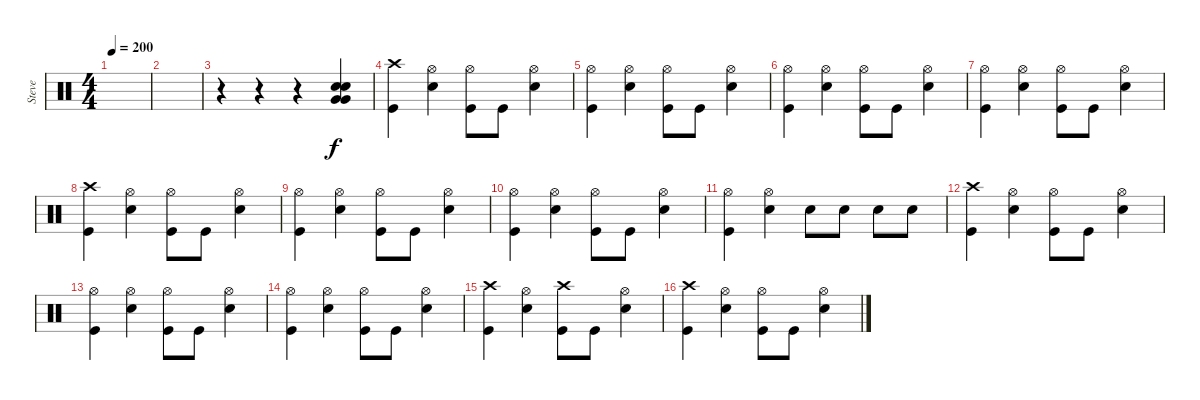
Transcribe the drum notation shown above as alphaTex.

\track ("Steve" "Steve") {instrument percussion}
\staff {score}
\articulation defaults
\ts (4 4)
\tempo 200
\clef neutral
\ks c
|
|
r.4 r.4 r.4 ("Snare (hit) 2" "Snare (hit) 2" "Very Low Tom (hit)" "Very Low Tom (hit)").4 |
("Crash high (hit)" "Kick (hit)").4 ("Hi-Hat (open)" "Snare (hit) 2").4 ("Hi-Hat (open)" "Kick (hit)").8 "Kick (hit)".8 ("Hi-Hat (open)" "Snare (hit) 2").4 |
("Hi-Hat (open)" "Kick (hit)").4 ("Hi-Hat (open)" "Snare (hit) 2").4 ("Hi-Hat (open)" "Kick (hit)").8 "Kick (hit)".8 ("Hi-Hat (open)" "Snare (hit) 2").4 |
("Hi-Hat (open)" "Kick (hit)").4 ("Hi-Hat (open)" "Snare (hit) 2").4 ("Hi-Hat (open)" "Kick (hit)").8 "Kick (hit)".8 ("Hi-Hat (open)" "Snare (hit) 2").4 |
("Hi-Hat (open)" "Kick (hit)").4 ("Hi-Hat (open)" "Snare (hit) 2").4 ("Hi-Hat (open)" "Kick (hit)").8 "Kick (hit)".8 ("Hi-Hat (open)" "Snare (hit) 2").4 |
("Crash high (hit)" "Kick (hit)").4 ("Hi-Hat (open)" "Snare (hit) 2").4 ("Hi-Hat (open)" "Kick (hit)").8 "Kick (hit)".8 ("Hi-Hat (open)" "Snare (hit) 2").4 |
("Hi-Hat (open)" "Kick (hit)").4 ("Hi-Hat (open)" "Snare (hit) 2").4 ("Hi-Hat (open)" "Kick (hit)").8 "Kick (hit)".8 ("Hi-Hat (open)" "Snare (hit) 2").4 |
("Hi-Hat (open)" "Kick (hit)").4 ("Hi-Hat (open)" "Snare (hit) 2").4 ("Hi-Hat (open)" "Kick (hit)").8 "Kick (hit)".8 ("Hi-Hat (open)" "Snare (hit) 2").4 |
("Hi-Hat (open)" "Kick (hit)").4 ("Hi-Hat (open)" "Snare (hit) 2").4 "Snare (hit) 2".8 "Snare (hit) 2".8 "Snare (hit) 2".8 "Snare (hit) 2".8 |
("Crash high (hit)" "Kick (hit)").4 ("Hi-Hat (open)" "Snare (hit) 2").4 ("Hi-Hat (open)" "Kick (hit)").8 "Kick (hit)".8 ("Hi-Hat (open)" "Snare (hit) 2").4 |
("Hi-Hat (open)" "Kick (hit)").4 ("Hi-Hat (open)" "Snare (hit) 2").4 ("Hi-Hat (open)" "Kick (hit)").8 "Kick (hit)".8 ("Hi-Hat (open)" "Snare (hit) 2").4 |
("Hi-Hat (open)" "Kick (hit)").4 ("Hi-Hat (open)" "Snare (hit) 2").4 ("Hi-Hat (open)" "Kick (hit)").8 "Kick (hit)".8 ("Hi-Hat (open)" "Snare (hit) 2").4 |
("Crash high (hit)" "Kick (hit)").4 ("Hi-Hat (open)" "Snare (hit) 2").4 ("Crash high (hit)" "Kick (hit)").8 "Kick (hit)".8 ("Hi-Hat (open)" "Snare (hit) 2").4 |
("Crash high (hit)" "Kick (hit)").4 ("Hi-Hat (open)" "Snare (hit) 2").4 ("Hi-Hat (open)" "Kick (hit)").8 "Kick (hit)".8 ("Hi-Hat (open)" "Snare (hit) 2").4
